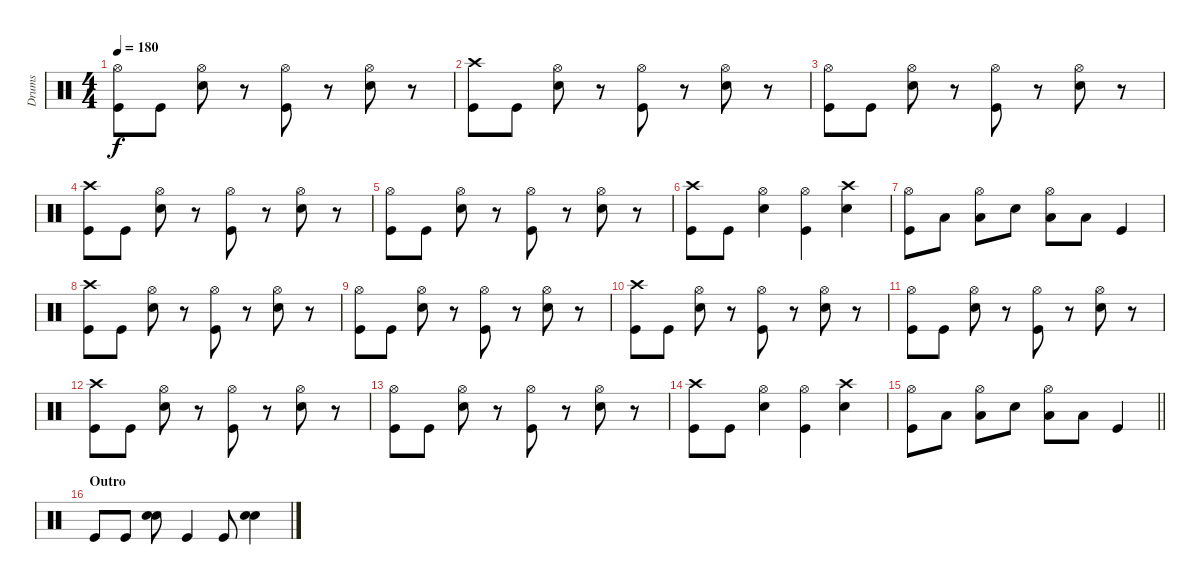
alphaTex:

\track ("Drums" "Drums") {instrument percussion}
\staff {score}
\articulation defaults
\ts (4 4)
\tempo 180
\clef neutral
\ks c
("Hi-Hat (open)" "Kick (hit)").8{dy f} "Kick (hit)".8 ("Hi-Hat (open)" "Snare (hit) 2").8 r.8 ("Hi-Hat (open)" "Kick (hit)").8 r.8 ("Hi-Hat (open)" "Snare (hit) 2").8 r.8 |
("Crash high (hit)" "Kick (hit)").8 "Kick (hit)".8 ("Hi-Hat (open)" "Snare (hit) 2").8 r.8 ("Hi-Hat (open)" "Kick (hit)").8 r.8 ("Hi-Hat (open)" "Snare (hit) 2").8 r.8 |
("Hi-Hat (open)" "Kick (hit)").8 "Kick (hit)".8 ("Hi-Hat (open)" "Snare (hit) 2").8 r.8 ("Hi-Hat (open)" "Kick (hit)").8 r.8 ("Hi-Hat (open)" "Snare (hit) 2").8 r.8 |
("Crash high (hit)" "Kick (hit)").8 "Kick (hit)".8 ("Hi-Hat (open)" "Snare (hit) 2").8 r.8 ("Hi-Hat (open)" "Kick (hit)").8 r.8 ("Hi-Hat (open)" "Snare (hit) 2").8 r.8 |
("Hi-Hat (open)" "Kick (hit)").8 "Kick (hit)".8 ("Hi-Hat (open)" "Snare (hit) 2").8 r.8 ("Hi-Hat (open)" "Kick (hit)").8 r.8 ("Hi-Hat (open)" "Snare (hit) 2").8 r.8 |
("Crash high (hit)" "Kick (hit)").8 "Kick (hit)".8 ("Hi-Hat (open)" "Snare (hit) 2").4 ("Hi-Hat (open)" "Kick (hit)").4 ("Crash high (hit)" "Snare (hit) 2").4 |
("Hi-Hat (open)" "Kick (hit)").8 "Low Tom (hit)".8 ("Hi-Hat (open)" "Low Tom (hit)").8 "Snare (hit) 2".8 ("Hi-Hat (open)" "Low Tom (hit)").8 "Low Tom (hit)".8 "Kick (hit)".4 |
("Crash high (hit)" "Kick (hit)").8 "Kick (hit)".8 ("Hi-Hat (open)" "Snare (hit) 2").8 r.8 ("Hi-Hat (open)" "Kick (hit)").8 r.8 ("Hi-Hat (open)" "Snare (hit) 2").8 r.8 |
("Hi-Hat (open)" "Kick (hit)").8 "Kick (hit)".8 ("Hi-Hat (open)" "Snare (hit) 2").8 r.8 ("Hi-Hat (open)" "Kick (hit)").8 r.8 ("Hi-Hat (open)" "Snare (hit) 2").8 r.8 |
("Crash high (hit)" "Kick (hit)").8 "Kick (hit)".8 ("Hi-Hat (open)" "Snare (hit) 2").8 r.8 ("Hi-Hat (open)" "Kick (hit)").8 r.8 ("Hi-Hat (open)" "Snare (hit) 2").8 r.8 |
("Hi-Hat (open)" "Kick (hit)").8 "Kick (hit)".8 ("Hi-Hat (open)" "Snare (hit) 2").8 r.8 ("Hi-Hat (open)" "Kick (hit)").8 r.8 ("Hi-Hat (open)" "Snare (hit) 2").8 r.8 |
("Crash high (hit)" "Kick (hit)").8 "Kick (hit)".8 ("Hi-Hat (open)" "Snare (hit) 2").8 r.8 ("Hi-Hat (open)" "Kick (hit)").8 r.8 ("Hi-Hat (open)" "Snare (hit) 2").8 r.8 |
("Hi-Hat (open)" "Kick (hit)").8 "Kick (hit)".8 ("Hi-Hat (open)" "Snare (hit) 2").8 r.8 ("Hi-Hat (open)" "Kick (hit)").8 r.8 ("Hi-Hat (open)" "Snare (hit) 2").8 r.8 |
("Crash high (hit)" "Kick (hit)").8 "Kick (hit)".8 ("Hi-Hat (open)" "Snare (hit) 2").4 ("Hi-Hat (open)" "Kick (hit)").4 ("Crash high (hit)" "Snare (hit) 2").4 |
\barLineRight lightlight
("Hi-Hat (open)" "Kick (hit)").8 "Low Tom (hit)".8 ("Hi-Hat (open)" "Low Tom (hit)").8 "Snare (hit) 2".8 ("Hi-Hat (open)" "Low Tom (hit)").8 "Low Tom (hit)".8 "Kick (hit)".4 |
\section ("" "Outro")
"Kick (hit)".8 "Kick (hit)".8 ("Snare (hit) 2" "Electric Snare (hit)").8 "Kick (hit)".4 "Kick (hit)".8 ("Snare (hit) 2" "Electric Snare (hit)").4
